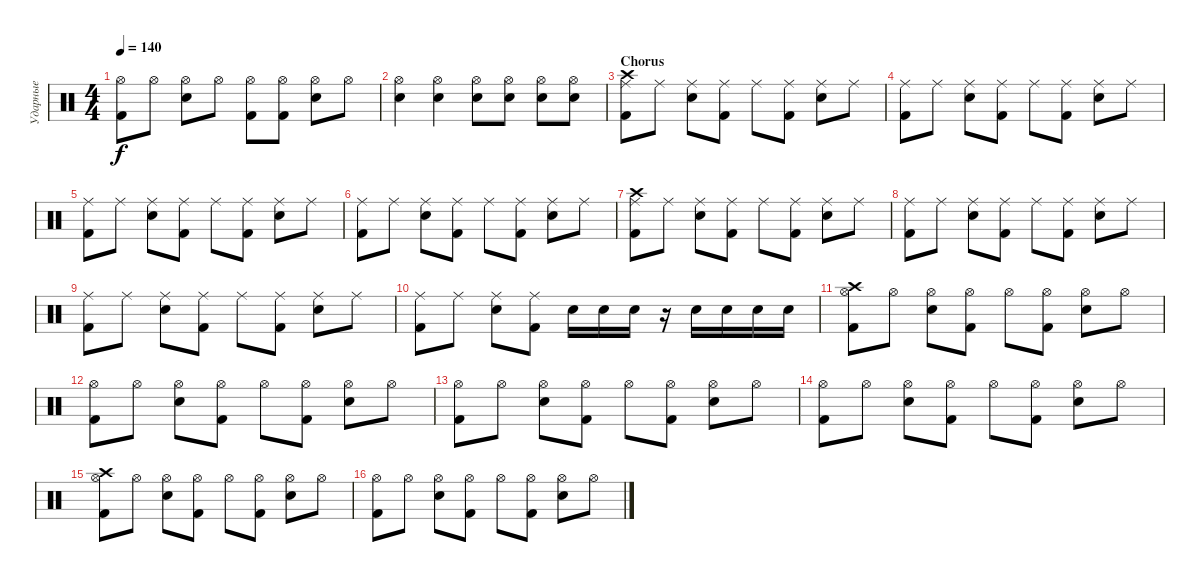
\track ("Ударные" "Ударные") {instrument percussion}
\staff {score}
\articulation defaults
\ts (4 4)
\tempo 140
\clef neutral
\ks c
("Hi-Hat (open)" "Kick (hit) 2").8{dy f} "Hi-Hat (open)".8 ("Hi-Hat (open)" "Snare (hit) 2").8 "Hi-Hat (open)".8 ("Hi-Hat (open)" "Kick (hit) 2").8 ("Hi-Hat (open)" "Kick (hit) 2").8 ("Hi-Hat (open)" "Snare (hit) 2").8 "Hi-Hat (open)".8 |
("Hi-Hat (open)" "Snare (hit) 2").4 ("Hi-Hat (open)" "Snare (hit) 2").4 ("Hi-Hat (open)" "Snare (hit) 2").8 ("Hi-Hat (open)" "Snare (hit) 2").8 ("Hi-Hat (open)" "Snare (hit) 2").8 ("Hi-Hat (open)" "Snare (hit) 2").8 |
\section ("" "Chorus")
("Ride (middle)" "Crash high (hit)" "Kick (hit) 2").8 "Ride (middle)".8 ("Ride (middle)" "Snare (hit) 2").8 ("Ride (middle)" "Kick (hit) 2").8 "Ride (middle)".8 ("Ride (middle)" "Kick (hit) 2").8 ("Ride (middle)" "Snare (hit) 2").8 "Ride (middle)".8 |
("Ride (middle)" "Kick (hit) 2").8 "Ride (middle)".8 ("Ride (middle)" "Snare (hit) 2").8 ("Ride (middle)" "Kick (hit) 2").8 "Ride (middle)".8 ("Ride (middle)" "Kick (hit) 2").8 ("Ride (middle)" "Snare (hit) 2").8 "Ride (middle)".8 |
("Ride (middle)" "Kick (hit) 2").8 "Ride (middle)".8 ("Ride (middle)" "Snare (hit) 2").8 ("Ride (middle)" "Kick (hit) 2").8 "Ride (middle)".8 ("Ride (middle)" "Kick (hit) 2").8 ("Ride (middle)" "Snare (hit) 2").8 "Ride (middle)".8 |
("Ride (middle)" "Kick (hit) 2").8 "Ride (middle)".8 ("Ride (middle)" "Snare (hit) 2").8 ("Ride (middle)" "Kick (hit) 2").8 "Ride (middle)".8 ("Ride (middle)" "Kick (hit) 2").8 ("Ride (middle)" "Snare (hit) 2").8 "Ride (middle)".8 |
("Ride (middle)" "Crash high (hit)" "Kick (hit) 2").8 "Ride (middle)".8 ("Ride (middle)" "Snare (hit) 2").8 ("Ride (middle)" "Kick (hit) 2").8 "Ride (middle)".8 ("Ride (middle)" "Kick (hit) 2").8 ("Ride (middle)" "Snare (hit) 2").8 "Ride (middle)".8 |
("Ride (middle)" "Kick (hit) 2").8 "Ride (middle)".8 ("Ride (middle)" "Snare (hit) 2").8 ("Ride (middle)" "Kick (hit) 2").8 "Ride (middle)".8 ("Ride (middle)" "Kick (hit) 2").8 ("Ride (middle)" "Snare (hit) 2").8 "Ride (middle)".8 |
("Ride (middle)" "Kick (hit) 2").8 "Ride (middle)".8 ("Ride (middle)" "Snare (hit) 2").8 ("Ride (middle)" "Kick (hit) 2").8 "Ride (middle)".8 ("Ride (middle)" "Kick (hit) 2").8 ("Ride (middle)" "Snare (hit) 2").8 "Ride (middle)".8 |
("Ride (middle)" "Kick (hit) 2").8 "Ride (middle)".8 ("Ride (middle)" "Snare (hit) 2").8 ("Ride (middle)" "Kick (hit) 2").8 "Snare (hit) 2".16 "Snare (hit) 2".16 "Snare (hit) 2".16 r.16 "Snare (hit) 2".16 "Snare (hit) 2".16 "Snare (hit) 2".16 "Snare (hit) 2".16 |
("Hi-Hat (open)" "Crash high (hit)" "Kick (hit) 2").8 "Hi-Hat (open)".8 ("Hi-Hat (open)" "Snare (hit) 2").8 ("Hi-Hat (open)" "Kick (hit) 2").8 "Hi-Hat (open)".8 ("Hi-Hat (open)" "Kick (hit) 2").8 ("Hi-Hat (open)" "Snare (hit) 2").8 "Hi-Hat (open)".8 |
("Hi-Hat (open)" "Kick (hit) 2").8 "Hi-Hat (open)".8 ("Hi-Hat (open)" "Snare (hit) 2").8 ("Hi-Hat (open)" "Kick (hit) 2").8 "Hi-Hat (open)".8 ("Hi-Hat (open)" "Kick (hit) 2").8 ("Hi-Hat (open)" "Snare (hit) 2").8 "Hi-Hat (open)".8 |
("Hi-Hat (open)" "Kick (hit) 2").8 "Hi-Hat (open)".8 ("Hi-Hat (open)" "Snare (hit) 2").8 ("Hi-Hat (open)" "Kick (hit) 2").8 "Hi-Hat (open)".8 ("Hi-Hat (open)" "Kick (hit) 2").8 ("Hi-Hat (open)" "Snare (hit) 2").8 "Hi-Hat (open)".8 |
("Hi-Hat (open)" "Kick (hit) 2").8 "Hi-Hat (open)".8 ("Hi-Hat (open)" "Snare (hit) 2").8 ("Hi-Hat (open)" "Kick (hit) 2").8 "Hi-Hat (open)".8 ("Hi-Hat (open)" "Kick (hit) 2").8 ("Hi-Hat (open)" "Snare (hit) 2").8 "Hi-Hat (open)".8 |
("Hi-Hat (open)" "Crash high (hit)" "Kick (hit) 2").8 "Hi-Hat (open)".8 ("Hi-Hat (open)" "Snare (hit) 2").8 ("Hi-Hat (open)" "Kick (hit) 2").8 "Hi-Hat (open)".8 ("Hi-Hat (open)" "Kick (hit) 2").8 ("Hi-Hat (open)" "Snare (hit) 2").8 "Hi-Hat (open)".8 |
("Hi-Hat (open)" "Kick (hit) 2").8 "Hi-Hat (open)".8 ("Hi-Hat (open)" "Snare (hit) 2").8 ("Hi-Hat (open)" "Kick (hit) 2").8 "Hi-Hat (open)".8 ("Hi-Hat (open)" "Kick (hit) 2").8 ("Hi-Hat (open)" "Snare (hit) 2").8 "Hi-Hat (open)".8
